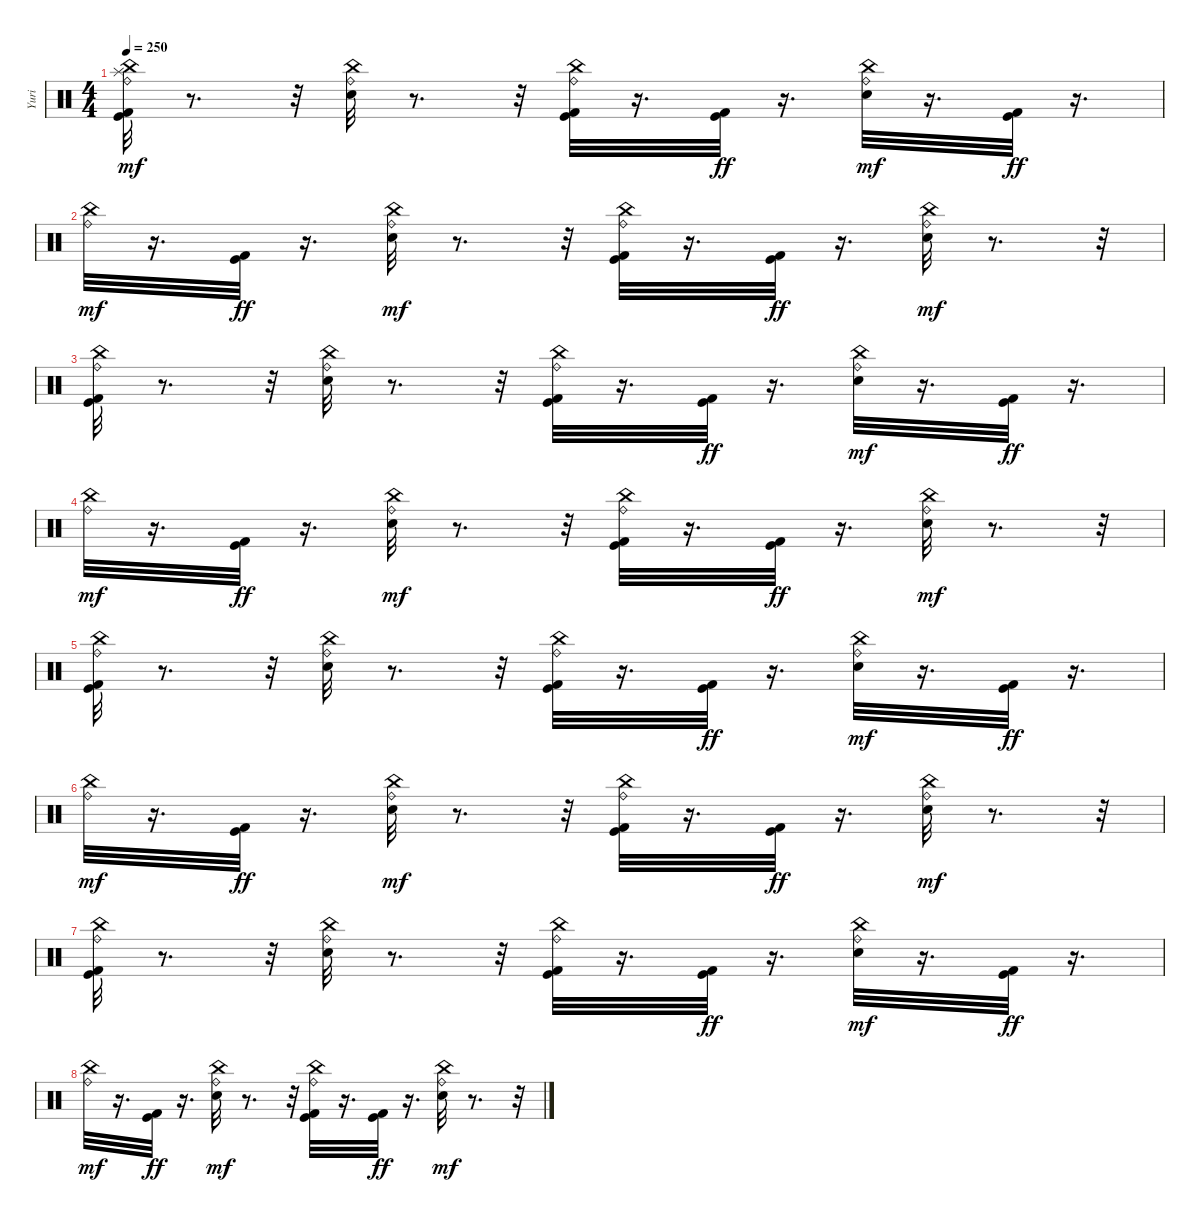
\track ("Yuri" "Yuri") {instrument percussion}
\staff {score}
\articulation defaults
\ts (4 4)
\tempo 250
\clef neutral
\ks c
("Kick (hit) 2" "Kick (hit)" "Ride (bell)" "China (hit)" "Splash (hit)").32{dy mf} r.8{d} r.32 ("Snare (hit) 2" "Ride (bell)" "China (hit)").32 r.8{d} r.32 ("Kick (hit) 2" "Kick (hit)" "Ride (bell)" "China (hit)").32 r.16{d} ("Kick (hit) 2" "Kick (hit)").32{dy ff} r.16{d} ("Snare (hit) 2" "Ride (bell)" "China (hit)").32{dy mf} r.16{d} ("Kick (hit) 2" "Kick (hit)").32{dy ff} r.16{d} |
("Ride (bell)" "China (hit)").32{dy mf} r.16{d} ("Kick (hit) 2" "Kick (hit)").32{dy ff} r.16{d} ("Snare (hit) 2" "Ride (bell)" "China (hit)").32{dy mf} r.8{d} r.32 ("Kick (hit) 2" "Kick (hit)" "Ride (bell)" "China (hit)").32 r.16{d} ("Kick (hit) 2" "Kick (hit)").32{dy ff} r.16{d} ("Snare (hit) 2" "Ride (bell)" "China (hit)").32{dy mf} r.8{d} r.32 |
("Kick (hit) 2" "Kick (hit)" "Ride (bell)" "China (hit)").32 r.8{d} r.32 ("Snare (hit) 2" "Ride (bell)" "China (hit)").32 r.8{d} r.32 ("Kick (hit) 2" "Kick (hit)" "Ride (bell)" "China (hit)").32 r.16{d} ("Kick (hit) 2" "Kick (hit)").32{dy ff} r.16{d} ("Snare (hit) 2" "Ride (bell)" "China (hit)").32{dy mf} r.16{d} ("Kick (hit) 2" "Kick (hit)").32{dy ff} r.16{d} |
("Ride (bell)" "China (hit)").32{dy mf} r.16{d} ("Kick (hit) 2" "Kick (hit)").32{dy ff} r.16{d} ("Snare (hit) 2" "Ride (bell)" "China (hit)").32{dy mf} r.8{d} r.32 ("Kick (hit) 2" "Kick (hit)" "Ride (bell)" "China (hit)").32 r.16{d} ("Kick (hit) 2" "Kick (hit)").32{dy ff} r.16{d} ("Snare (hit) 2" "Ride (bell)" "China (hit)").32{dy mf} r.8{d} r.32 |
("Kick (hit) 2" "Kick (hit)" "Ride (bell)" "China (hit)").32 r.8{d} r.32 ("Snare (hit) 2" "Ride (bell)" "China (hit)").32 r.8{d} r.32 ("Kick (hit) 2" "Kick (hit)" "Ride (bell)" "China (hit)").32 r.16{d} ("Kick (hit) 2" "Kick (hit)").32{dy ff} r.16{d} ("Snare (hit) 2" "Ride (bell)" "China (hit)").32{dy mf} r.16{d} ("Kick (hit) 2" "Kick (hit)").32{dy ff} r.16{d} |
("Ride (bell)" "China (hit)").32{dy mf} r.16{d} ("Kick (hit) 2" "Kick (hit)").32{dy ff} r.16{d} ("Snare (hit) 2" "Ride (bell)" "China (hit)").32{dy mf} r.8{d} r.32 ("Kick (hit) 2" "Kick (hit)" "Ride (bell)" "China (hit)").32 r.16{d} ("Kick (hit) 2" "Kick (hit)").32{dy ff} r.16{d} ("Snare (hit) 2" "Ride (bell)" "China (hit)").32{dy mf} r.8{d} r.32 |
("Kick (hit) 2" "Kick (hit)" "Ride (bell)" "China (hit)").32 r.8{d} r.32 ("Snare (hit) 2" "Ride (bell)" "China (hit)").32 r.8{d} r.32 ("Kick (hit) 2" "Kick (hit)" "Ride (bell)" "China (hit)").32 r.16{d} ("Kick (hit) 2" "Kick (hit)").32{dy ff} r.16{d} ("Snare (hit) 2" "Ride (bell)" "China (hit)").32{dy mf} r.16{d} ("Kick (hit) 2" "Kick (hit)").32{dy ff} r.16{d} |
("Ride (bell)" "China (hit)").32{dy mf} r.16{d} ("Kick (hit) 2" "Kick (hit)").32{dy ff} r.16{d} ("Snare (hit) 2" "Ride (bell)" "China (hit)").32{dy mf} r.8{d} r.32 ("Kick (hit) 2" "Kick (hit)" "Ride (bell)" "China (hit)").32 r.16{d} ("Kick (hit) 2" "Kick (hit)").32{dy ff} r.16{d} ("Snare (hit) 2" "Ride (bell)" "China (hit)").32{dy mf} r.8{d} r.32
